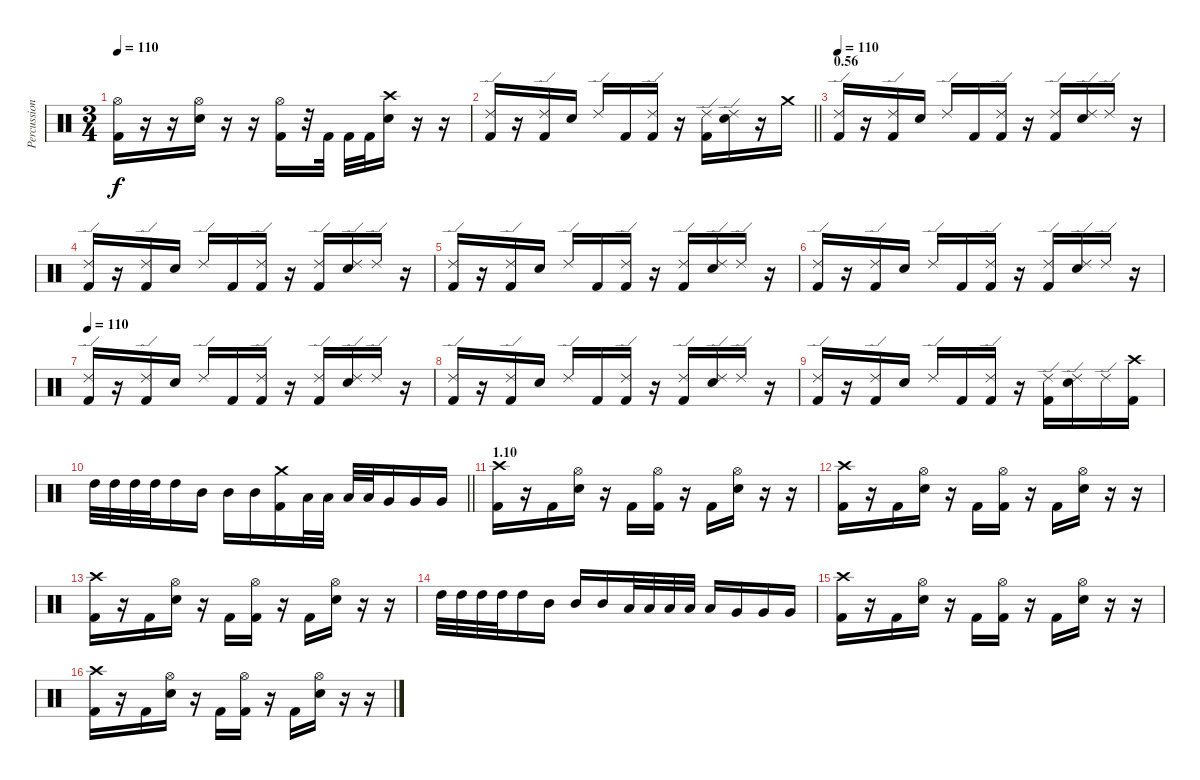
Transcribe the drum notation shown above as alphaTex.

\track ("Percussion" "Percussion") {instrument percussion}
\staff {score}
\articulation defaults
\ts (3 4)
\tempo 110
\clef neutral
\ks c
("Hi-Hat (open)" "Kick (hit) 2").16{dy f} r.16 r.16 ("Hi-Hat (open)" "Snare (hit) 2").16 r.16 r.16 ("Hi-Hat (open)" "Kick (hit) 2").16 r.32 "Kick (hit) 2".32 "Kick (hit) 2".32 "Kick (hit) 2".32 ("Crash high (hit)" "Snare (hit) 2").16 r.16 r.16 |
\barLineRight lightlight
("Ride (edge) 2" "Kick (hit) 2").16 r.16 ("Ride (edge) 2" "Kick (hit) 2").16 "Snare (hit) 2".16 "Ride (edge) 2".16 "Kick (hit) 2".16 ("Ride (edge) 2" "Kick (hit) 2").16 r.16 ("Ride (edge) 2" "Kick (hit) 2").16 ("Ride (edge) 2" "Snare (hit) 2").16 r.16 "Crash medium (hit)".16 |
\section ("" "0.56")
\tempo 110
("Ride (edge) 2" "Kick (hit) 2").16 r.16 ("Ride (edge) 2" "Kick (hit) 2").16 "Snare (hit) 2".16 "Ride (edge) 2".16 "Kick (hit) 2".16 ("Ride (edge) 2" "Kick (hit) 2").16 r.16 ("Ride (edge) 2" "Kick (hit) 2").16 ("Ride (edge) 2" "Snare (hit) 2").16 "Ride (edge) 2".16 r.16 |
("Ride (edge) 2" "Kick (hit) 2").16 r.16 ("Ride (edge) 2" "Kick (hit) 2").16 "Snare (hit) 2".16 "Ride (edge) 2".16 "Kick (hit) 2".16 ("Ride (edge) 2" "Kick (hit) 2").16 r.16 ("Ride (edge) 2" "Kick (hit) 2").16 ("Ride (edge) 2" "Snare (hit) 2").16 "Ride (edge) 2".16 r.16 |
("Ride (edge) 2" "Kick (hit) 2").16 r.16 ("Ride (edge) 2" "Kick (hit) 2").16 "Snare (hit) 2".16 "Ride (edge) 2".16 "Kick (hit) 2".16 ("Ride (edge) 2" "Kick (hit) 2").16 r.16 ("Ride (edge) 2" "Kick (hit) 2").16 ("Ride (edge) 2" "Snare (hit) 2").16 "Ride (edge) 2".16 r.16 |
("Ride (edge) 2" "Kick (hit) 2").16 r.16 ("Ride (edge) 2" "Kick (hit) 2").16 "Snare (hit) 2".16 "Ride (edge) 2".16 "Kick (hit) 2".16 ("Ride (edge) 2" "Kick (hit) 2").16 r.16 ("Ride (edge) 2" "Kick (hit) 2").16 ("Ride (edge) 2" "Snare (hit) 2").16 "Ride (edge) 2".16 r.16 |
\tempo 110
("Ride (edge) 2" "Kick (hit) 2").16 r.16 ("Ride (edge) 2" "Kick (hit) 2").16 "Snare (hit) 2".16 "Ride (edge) 2".16 "Kick (hit) 2".16 ("Ride (edge) 2" "Kick (hit) 2").16 r.16 ("Ride (edge) 2" "Kick (hit) 2").16 ("Ride (edge) 2" "Snare (hit) 2").16 "Ride (edge) 2".16 r.16 |
("Ride (edge) 2" "Kick (hit) 2").16 r.16 ("Ride (edge) 2" "Kick (hit) 2").16 "Snare (hit) 2".16 "Ride (edge) 2".16 "Kick (hit) 2".16 ("Ride (edge) 2" "Kick (hit) 2").16 r.16 ("Ride (edge) 2" "Kick (hit) 2").16 ("Ride (edge) 2" "Snare (hit) 2").16 "Ride (edge) 2".16 r.16 |
("Ride (edge) 2" "Kick (hit) 2").16 r.16 ("Ride (edge) 2" "Kick (hit) 2").16 "Snare (hit) 2".16 "Ride (edge) 2".16 "Kick (hit) 2".16 ("Ride (edge) 2" "Kick (hit) 2").16 r.16 ("Ride (edge) 2" "Kick (hit) 2").16 ("Ride (edge) 2" "Snare (hit) 2").16 "Ride (edge) 2".16 ("Crash high (hit)" "Kick (hit) 2").16 |
\barLineRight lightlight "High Tom (hit)".32 "High Tom (hit)".32 "High Tom (hit)".32 "High Tom (hit)".32 "High Tom (hit)".16 "Mid Tom (hit)".16 "Mid Tom (hit)".16 "Mid Tom (hit)".16
("Crash medium (hit)" "Kick (hit) 2").16 "Low Tom (hit)".32 "Low Tom (hit)".32 "Low Tom (hit)".32 "Low Tom (hit)".32 "Very Low Tom (hit)".16 "Very Low Tom (hit)".16 "Very Low Tom (hit)".16 |
\section ("" "1.10")
("Crash high (hit)" "Kick (hit) 2").16 r.16 "Kick (hit) 2".16 ("Hi-Hat (open)" "Snare (hit) 2").16 r.16 "Kick (hit) 2".16 ("Hi-Hat (open)" "Kick (hit) 2").16 r.16 "Kick (hit) 2".16 ("Hi-Hat (open)" "Snare (hit) 2").16 r.16 r.16 |
("Crash high (hit)" "Kick (hit) 2").16 r.16 "Kick (hit) 2".16 ("Hi-Hat (open)" "Snare (hit) 2").16 r.16 "Kick (hit) 2".16 ("Hi-Hat (open)" "Kick (hit) 2").16 r.16 "Kick (hit) 2".16 ("Hi-Hat (open)" "Snare (hit) 2").16 r.16 r.16 |
("Crash high (hit)" "Kick (hit) 2").16 r.16 "Kick (hit) 2".16 ("Hi-Hat (open)" "Snare (hit) 2").16 r.16 "Kick (hit) 2".16 ("Hi-Hat (open)" "Kick (hit) 2").16 r.16 "Kick (hit) 2".16 ("Hi-Hat (open)" "Snare (hit) 2").16 r.16 r.16 |
"High Tom (hit)".32 "High Tom (hit)".32 "High Tom (hit)".32 "High Tom (hit)".32 "High Tom (hit)".16 "Mid Tom (hit)".16 "Mid Tom (hit)".16 "Mid Tom (hit)".16 "Low Tom (hit)".32 "Low Tom (hit)".32 "Low Tom (hit)".32 "Low Tom (hit)".32 "Low Tom (hit)".16 "Very Low Tom (hit)".16 "Very Low Tom (hit)".16 "Very Low Tom (hit)".16 |
("Crash high (hit)" "Kick (hit) 2").16 r.16 "Kick (hit) 2".16 ("Hi-Hat (open)" "Snare (hit) 2").16 r.16 "Kick (hit) 2".16 ("Hi-Hat (open)" "Kick (hit) 2").16 r.16 "Kick (hit) 2".16 ("Hi-Hat (open)" "Snare (hit) 2").16 r.16 r.16 |
("Crash high (hit)" "Kick (hit) 2").16 r.16 "Kick (hit) 2".16 ("Hi-Hat (open)" "Snare (hit) 2").16 r.16 "Kick (hit) 2".16 ("Hi-Hat (open)" "Kick (hit) 2").16 r.16 "Kick (hit) 2".16 ("Hi-Hat (open)" "Snare (hit) 2").16 r.16 r.16
